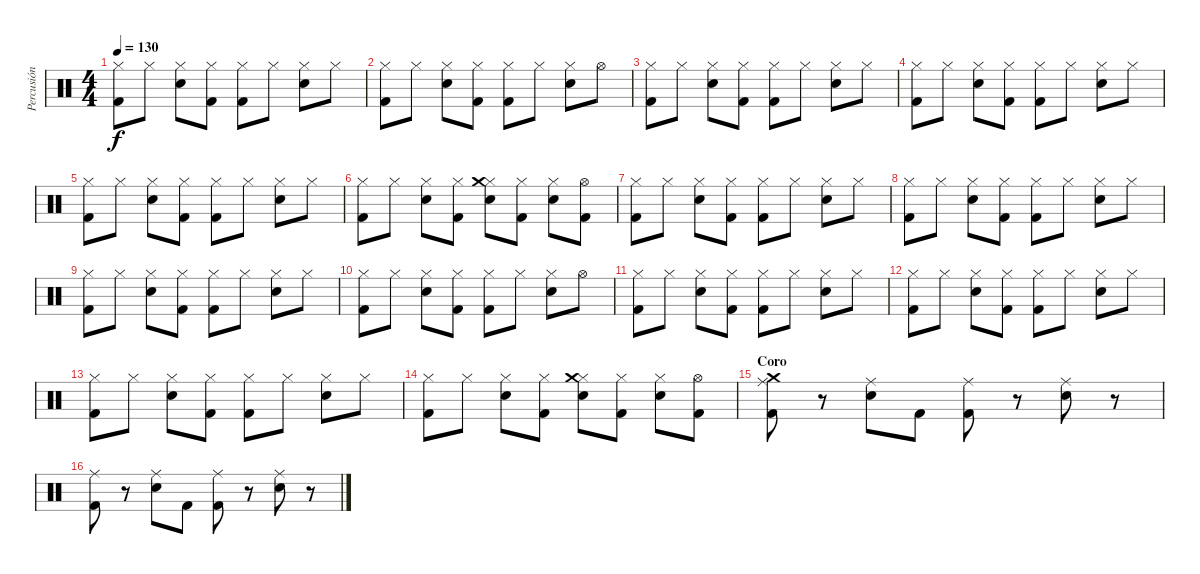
\track ("Percusión" "Percusión") {instrument percussion}
\staff {score}
\articulation defaults
\ts (4 4)
\tempo 130
\clef neutral
\ks c
("Hi-Hat (closed)" "Kick (hit) 2").8{dy f} "Hi-Hat (closed)".8 ("Hi-Hat (closed)" "Electric Snare (hit)").8 ("Hi-Hat (closed)" "Kick (hit) 2").8 ("Hi-Hat (closed)" "Kick (hit) 2").8 "Hi-Hat (closed)".8 ("Hi-Hat (closed)" "Electric Snare (hit)").8 "Hi-Hat (closed)".8 |
("Hi-Hat (closed)" "Kick (hit) 2").8 "Hi-Hat (closed)".8 ("Hi-Hat (closed)" "Electric Snare (hit)").8 ("Hi-Hat (closed)" "Kick (hit) 2").8 ("Hi-Hat (closed)" "Kick (hit) 2").8 "Hi-Hat (closed)".8 ("Hi-Hat (closed)" "Electric Snare (hit)").8 "Hi-Hat (open)".8 |
("Hi-Hat (closed)" "Kick (hit) 2").8 "Hi-Hat (closed)".8 ("Hi-Hat (closed)" "Electric Snare (hit)").8 ("Hi-Hat (closed)" "Kick (hit) 2").8 ("Hi-Hat (closed)" "Kick (hit) 2").8 "Hi-Hat (closed)".8 ("Hi-Hat (closed)" "Electric Snare (hit)").8 "Hi-Hat (closed)".8 |
("Hi-Hat (closed)" "Kick (hit) 2").8 "Hi-Hat (closed)".8 ("Hi-Hat (closed)" "Electric Snare (hit)").8 ("Hi-Hat (closed)" "Kick (hit) 2").8 ("Hi-Hat (closed)" "Kick (hit) 2").8 "Hi-Hat (closed)".8 ("Hi-Hat (closed)" "Electric Snare (hit)").8 "Hi-Hat (closed)".8 |
("Hi-Hat (closed)" "Kick (hit) 2").8 "Hi-Hat (closed)".8 ("Hi-Hat (closed)" "Electric Snare (hit)").8 ("Hi-Hat (closed)" "Kick (hit) 2").8 ("Hi-Hat (closed)" "Kick (hit) 2").8 "Hi-Hat (closed)".8 ("Hi-Hat (closed)" "Electric Snare (hit)").8 "Hi-Hat (closed)".8 |
("Hi-Hat (closed)" "Kick (hit) 2").8 "Hi-Hat (closed)".8 ("Hi-Hat (closed)" "Electric Snare (hit)").8 ("Hi-Hat (closed)" "Kick (hit) 2").8 ("Hi-Hat (closed)" "Electric Snare (hit)" "Crash medium (hit)").8 ("Hi-Hat (closed)" "Kick (hit) 2").8 ("Hi-Hat (closed)" "Electric Snare (hit)").8 ("Hi-Hat (open)" "Kick (hit) 2").8 |
("Hi-Hat (closed)" "Kick (hit) 2").8 "Hi-Hat (closed)".8 ("Hi-Hat (closed)" "Electric Snare (hit)").8 ("Hi-Hat (closed)" "Kick (hit) 2").8 ("Hi-Hat (closed)" "Kick (hit) 2").8 "Hi-Hat (closed)".8 ("Hi-Hat (closed)" "Electric Snare (hit)").8 "Hi-Hat (closed)".8 |
("Hi-Hat (closed)" "Kick (hit) 2").8 "Hi-Hat (closed)".8 ("Hi-Hat (closed)" "Electric Snare (hit)").8 ("Hi-Hat (closed)" "Kick (hit) 2").8 ("Hi-Hat (closed)" "Kick (hit) 2").8 "Hi-Hat (closed)".8 ("Hi-Hat (closed)" "Electric Snare (hit)").8 "Hi-Hat (closed)".8 |
("Hi-Hat (closed)" "Kick (hit) 2").8 "Hi-Hat (closed)".8 ("Hi-Hat (closed)" "Electric Snare (hit)").8 ("Hi-Hat (closed)" "Kick (hit) 2").8 ("Hi-Hat (closed)" "Kick (hit) 2").8 "Hi-Hat (closed)".8 ("Hi-Hat (closed)" "Electric Snare (hit)").8 "Hi-Hat (closed)".8 |
("Hi-Hat (closed)" "Kick (hit) 2").8 "Hi-Hat (closed)".8 ("Hi-Hat (closed)" "Electric Snare (hit)").8 ("Hi-Hat (closed)" "Kick (hit) 2").8 ("Hi-Hat (closed)" "Kick (hit) 2").8 "Hi-Hat (closed)".8 ("Hi-Hat (closed)" "Electric Snare (hit)").8 "Hi-Hat (open)".8 |
("Hi-Hat (closed)" "Kick (hit) 2").8 "Hi-Hat (closed)".8 ("Hi-Hat (closed)" "Electric Snare (hit)").8 ("Hi-Hat (closed)" "Kick (hit) 2").8 ("Hi-Hat (closed)" "Kick (hit) 2").8 "Hi-Hat (closed)".8 ("Hi-Hat (closed)" "Electric Snare (hit)").8 "Hi-Hat (closed)".8 |
("Hi-Hat (closed)" "Kick (hit) 2").8 "Hi-Hat (closed)".8 ("Hi-Hat (closed)" "Electric Snare (hit)").8 ("Hi-Hat (closed)" "Kick (hit) 2").8 ("Hi-Hat (closed)" "Kick (hit) 2").8 "Hi-Hat (closed)".8 ("Hi-Hat (closed)" "Electric Snare (hit)").8 "Hi-Hat (closed)".8 |
("Hi-Hat (closed)" "Kick (hit) 2").8 "Hi-Hat (closed)".8 ("Hi-Hat (closed)" "Electric Snare (hit)").8 ("Hi-Hat (closed)" "Kick (hit) 2").8 ("Hi-Hat (closed)" "Kick (hit) 2").8 "Hi-Hat (closed)".8 ("Hi-Hat (closed)" "Electric Snare (hit)").8 "Hi-Hat (closed)".8 |
("Hi-Hat (closed)" "Kick (hit) 2").8 "Hi-Hat (closed)".8 ("Hi-Hat (closed)" "Electric Snare (hit)").8 ("Hi-Hat (closed)" "Kick (hit) 2").8 ("Hi-Hat (closed)" "Electric Snare (hit)" "Crash medium (hit)").8 ("Hi-Hat (closed)" "Kick (hit) 2").8 ("Hi-Hat (closed)" "Electric Snare (hit)").8 ("Hi-Hat (open)" "Kick (hit) 2").8 |
\section ("" "Coro")
("Crash medium (hit)" "Ride (middle)" "Kick (hit) 2").8 r.8 ("Ride (middle)" "Electric Snare (hit)").8 "Kick (hit) 2".8 ("Ride (middle)" "Kick (hit) 2").8 r.8 ("Ride (middle)" "Electric Snare (hit)").8 r.8 |
("Ride (middle)" "Kick (hit) 2").8 r.8 ("Ride (middle)" "Electric Snare (hit)").8 "Kick (hit) 2".8 ("Ride (middle)" "Kick (hit) 2").8 r.8 ("Ride (middle)" "Electric Snare (hit)").8 r.8
